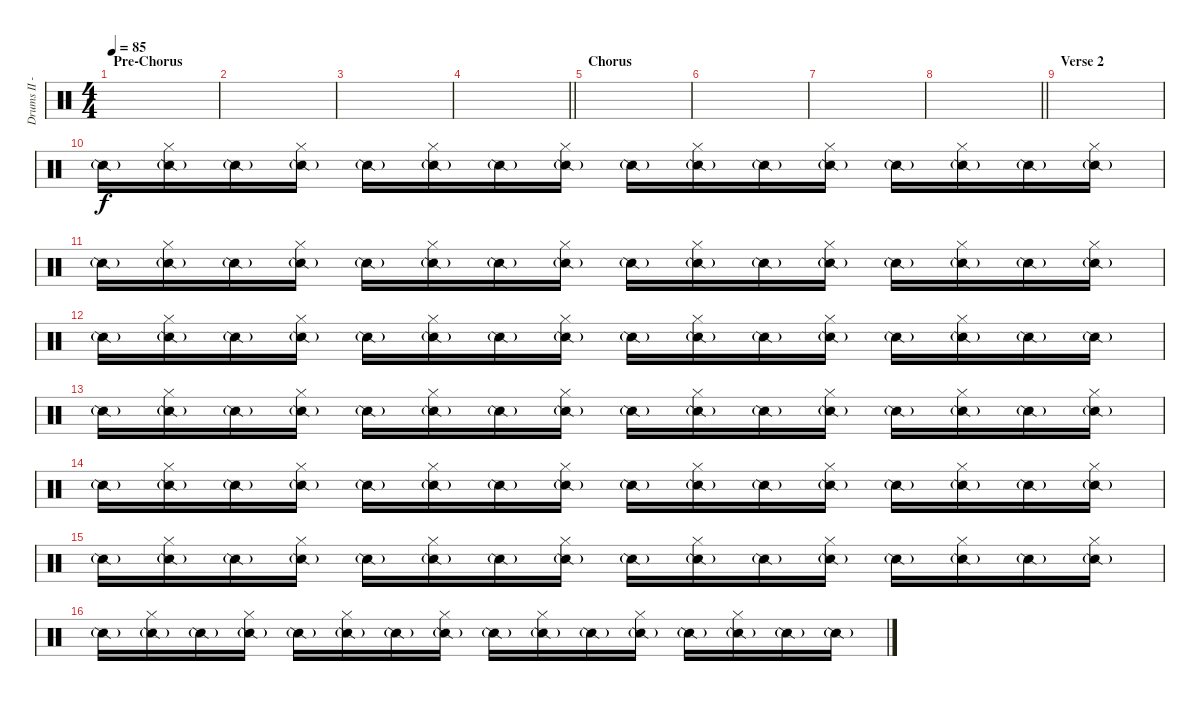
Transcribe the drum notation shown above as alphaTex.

\track ("Drums II - Adam" "Drums II -") {instrument percussion}
\staff {score}
\articulation defaults
\ts (4 4)
\section ("" "Pre-Chorus")
\tempo 85
\clef neutral
\ks c
|
|
|
\barLineRight lightlight
|
\section ("" "Chorus")
|
|
|
\barLineRight lightlight
|
\section ("" "Verse 2")
|
"Snare (side stick) 2"{g}.16 ("Snare (side stick) 2"{g} "Hi-Hat (closed)").16 "Snare (side stick) 2"{g}.16 ("Snare (side stick) 2"{g} "Hi-Hat (closed)").16 "Snare (side stick) 2"{g}.16 ("Snare (side stick) 2"{g} "Hi-Hat (closed)").16 "Snare (side stick) 2"{g}.16 ("Snare (side stick) 2"{g} "Hi-Hat (closed)").16 "Snare (side stick) 2"{g}.16 ("Snare (side stick) 2"{g} "Hi-Hat (closed)").16 "Snare (side stick) 2"{g}.16 ("Snare (side stick) 2"{g} "Hi-Hat (closed)").16 "Snare (side stick) 2"{g}.16 ("Snare (side stick) 2"{g} "Hi-Hat (closed)").16 "Snare (side stick) 2"{g}.16 ("Snare (side stick) 2"{g} "Hi-Hat (closed)").16 |
"Snare (side stick) 2"{g}.16 ("Snare (side stick) 2"{g} "Hi-Hat (closed)").16 "Snare (side stick) 2"{g}.16 ("Snare (side stick) 2"{g} "Hi-Hat (closed)").16 "Snare (side stick) 2"{g}.16 ("Snare (side stick) 2"{g} "Hi-Hat (closed)").16 "Snare (side stick) 2"{g}.16 ("Snare (side stick) 2"{g} "Hi-Hat (closed)").16 "Snare (side stick) 2"{g}.16 ("Snare (side stick) 2"{g} "Hi-Hat (closed)").16 "Snare (side stick) 2"{g}.16 ("Snare (side stick) 2"{g} "Hi-Hat (closed)").16 "Snare (side stick) 2"{g}.16 ("Snare (side stick) 2"{g} "Hi-Hat (closed)").16 "Snare (side stick) 2"{g}.16 ("Snare (side stick) 2"{g} "Hi-Hat (closed)").16 |
"Snare (side stick) 2"{g}.16 ("Snare (side stick) 2"{g} "Hi-Hat (closed)").16 "Snare (side stick) 2"{g}.16 ("Snare (side stick) 2"{g} "Hi-Hat (closed)").16 "Snare (side stick) 2"{g}.16 ("Snare (side stick) 2"{g} "Hi-Hat (closed)").16 "Snare (side stick) 2"{g}.16 ("Snare (side stick) 2"{g} "Hi-Hat (closed)").16 "Snare (side stick) 2"{g}.16 ("Snare (side stick) 2"{g} "Hi-Hat (closed)").16 "Snare (side stick) 2"{g}.16 ("Snare (side stick) 2"{g} "Hi-Hat (closed)").16 "Snare (side stick) 2"{g}.16 ("Snare (side stick) 2"{g} "Hi-Hat (closed)").16 "Snare (side stick) 2"{g}.16 "Snare (side stick) 2"{g}.16 |
"Snare (side stick) 2"{g}.16 ("Snare (side stick) 2"{g} "Hi-Hat (closed)").16 "Snare (side stick) 2"{g}.16 ("Snare (side stick) 2"{g} "Hi-Hat (closed)").16 "Snare (side stick) 2"{g}.16 ("Snare (side stick) 2"{g} "Hi-Hat (closed)").16 "Snare (side stick) 2"{g}.16 ("Snare (side stick) 2"{g} "Hi-Hat (closed)").16 "Snare (side stick) 2"{g}.16 ("Snare (side stick) 2"{g} "Hi-Hat (closed)").16 "Snare (side stick) 2"{g}.16 ("Snare (side stick) 2"{g} "Hi-Hat (closed)").16 "Snare (side stick) 2"{g}.16 ("Snare (side stick) 2"{g} "Hi-Hat (closed)").16 "Snare (side stick) 2"{g}.16 ("Snare (side stick) 2"{g} "Hi-Hat (closed)").16 |
"Snare (side stick) 2"{g}.16 ("Snare (side stick) 2"{g} "Hi-Hat (closed)").16 "Snare (side stick) 2"{g}.16 ("Snare (side stick) 2"{g} "Hi-Hat (closed)").16 "Snare (side stick) 2"{g}.16 ("Snare (side stick) 2"{g} "Hi-Hat (closed)").16 "Snare (side stick) 2"{g}.16 ("Snare (side stick) 2"{g} "Hi-Hat (closed)").16 "Snare (side stick) 2"{g}.16 ("Snare (side stick) 2"{g} "Hi-Hat (closed)").16 "Snare (side stick) 2"{g}.16 ("Snare (side stick) 2"{g} "Hi-Hat (closed)").16 "Snare (side stick) 2"{g}.16 ("Snare (side stick) 2"{g} "Hi-Hat (closed)").16 "Snare (side stick) 2"{g}.16 ("Snare (side stick) 2"{g} "Hi-Hat (closed)").16 |
"Snare (side stick) 2"{g}.16 ("Snare (side stick) 2"{g} "Hi-Hat (closed)").16 "Snare (side stick) 2"{g}.16 ("Snare (side stick) 2"{g} "Hi-Hat (closed)").16 "Snare (side stick) 2"{g}.16 ("Snare (side stick) 2"{g} "Hi-Hat (closed)").16 "Snare (side stick) 2"{g}.16 ("Snare (side stick) 2"{g} "Hi-Hat (closed)").16 "Snare (side stick) 2"{g}.16 ("Snare (side stick) 2"{g} "Hi-Hat (closed)").16 "Snare (side stick) 2"{g}.16 ("Snare (side stick) 2"{g} "Hi-Hat (closed)").16 "Snare (side stick) 2"{g}.16 ("Snare (side stick) 2"{g} "Hi-Hat (closed)").16 "Snare (side stick) 2"{g}.16 ("Snare (side stick) 2"{g} "Hi-Hat (closed)").16 |
"Snare (side stick) 2"{g}.16 ("Snare (side stick) 2"{g} "Hi-Hat (closed)").16 "Snare (side stick) 2"{g}.16 ("Snare (side stick) 2"{g} "Hi-Hat (closed)").16 "Snare (side stick) 2"{g}.16 ("Snare (side stick) 2"{g} "Hi-Hat (closed)").16 "Snare (side stick) 2"{g}.16 ("Snare (side stick) 2"{g} "Hi-Hat (closed)").16 "Snare (side stick) 2"{g}.16 ("Snare (side stick) 2"{g} "Hi-Hat (closed)").16 "Snare (side stick) 2"{g}.16 ("Snare (side stick) 2"{g} "Hi-Hat (closed)").16 "Snare (side stick) 2"{g}.16 ("Snare (side stick) 2"{g} "Hi-Hat (closed)").16 "Snare (side stick) 2"{g}.16 "Snare (side stick) 2"{g}.16
